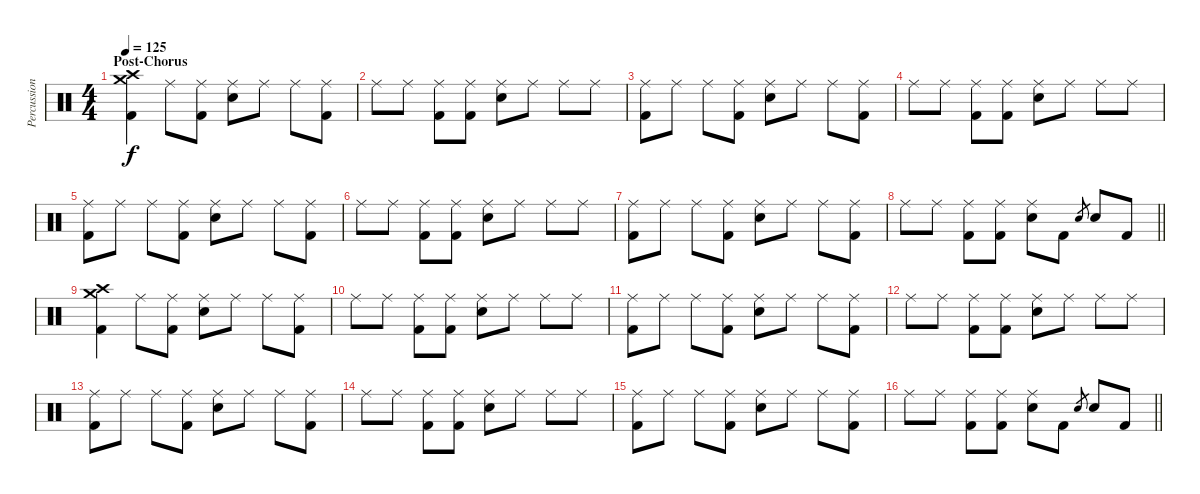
\track ("Percussion" "Percussion") {instrument percussion}
\staff {score}
\articulation defaults
\ts (4 4)
\section ("" "Post-Chorus")
\tempo 125
\clef neutral
\ks c
("Crash high (hit)" "Crash medium (hit)" "Kick (hit) 2").4{dy f} "Ride (middle)".8 ("Ride (middle)" "Kick (hit) 2").8 ("Ride (middle)" "Electric Snare (hit)").8 "Ride (middle)".8 "Ride (middle)".8 ("Ride (middle)" "Kick (hit) 2").8 |
"Ride (middle)".8 "Ride (middle)".8 ("Ride (middle)" "Kick (hit) 2").8 ("Ride (middle)" "Kick (hit) 2").8 ("Ride (middle)" "Electric Snare (hit)").8 "Ride (middle)".8 "Ride (middle)".8 "Ride (middle)".8 |
("Ride (middle)" "Kick (hit) 2").8 "Ride (middle)".8 "Ride (middle)".8 ("Ride (middle)" "Kick (hit) 2").8 ("Ride (middle)" "Electric Snare (hit)").8 "Ride (middle)".8 "Ride (middle)".8 ("Ride (middle)" "Kick (hit) 2").8 |
"Ride (middle)".8 "Ride (middle)".8 ("Ride (middle)" "Kick (hit) 2").8 ("Ride (middle)" "Kick (hit) 2").8 ("Ride (middle)" "Electric Snare (hit)").8 "Ride (middle)".8 "Ride (middle)".8 "Ride (middle)".8 |
("Ride (middle)" "Kick (hit) 2").8 "Ride (middle)".8 "Ride (middle)".8 ("Ride (middle)" "Kick (hit) 2").8 ("Ride (middle)" "Electric Snare (hit)").8 "Ride (middle)".8 "Ride (middle)".8 ("Ride (middle)" "Kick (hit) 2").8 |
"Ride (middle)".8 "Ride (middle)".8 ("Ride (middle)" "Kick (hit) 2").8 ("Ride (middle)" "Kick (hit) 2").8 ("Ride (middle)" "Electric Snare (hit)").8 "Ride (middle)".8 "Ride (middle)".8 "Ride (middle)".8 |
("Ride (middle)" "Kick (hit) 2").8 "Ride (middle)".8 "Ride (middle)".8 ("Ride (middle)" "Kick (hit) 2").8 ("Ride (middle)" "Electric Snare (hit)").8 "Ride (middle)".8 "Ride (middle)".8 ("Ride (middle)" "Kick (hit) 2").8 |
\barLineRight lightlight "Ride (middle)".8 "Ride (middle)".8
("Ride (middle)" "Kick (hit) 2").8 ("Ride (middle)" "Kick (hit) 2").8 ("Ride (middle)" "Electric Snare (hit)").8 "Kick (hit) 2".8 "Electric Snare (hit)".8{gr} "Electric Snare (hit)".8 "Kick (hit) 2".8 |
("Crash high (hit)" "Crash medium (hit)" "Kick (hit) 2").4 "Ride (middle)".8 ("Ride (middle)" "Kick (hit) 2").8 ("Ride (middle)" "Electric Snare (hit)").8 "Ride (middle)".8 "Ride (middle)".8 ("Ride (middle)" "Kick (hit) 2").8 |
"Ride (middle)".8 "Ride (middle)".8 ("Ride (middle)" "Kick (hit) 2").8 ("Ride (middle)" "Kick (hit) 2").8 ("Ride (middle)" "Electric Snare (hit)").8 "Ride (middle)".8 "Ride (middle)".8 "Ride (middle)".8 |
("Ride (middle)" "Kick (hit) 2").8 "Ride (middle)".8 "Ride (middle)".8 ("Ride (middle)" "Kick (hit) 2").8 ("Ride (middle)" "Electric Snare (hit)").8 "Ride (middle)".8 "Ride (middle)".8 ("Ride (middle)" "Kick (hit) 2").8 |
"Ride (middle)".8 "Ride (middle)".8 ("Ride (middle)" "Kick (hit) 2").8 ("Ride (middle)" "Kick (hit) 2").8 ("Ride (middle)" "Electric Snare (hit)").8 "Ride (middle)".8 "Ride (middle)".8 "Ride (middle)".8 |
("Ride (middle)" "Kick (hit) 2").8 "Ride (middle)".8 "Ride (middle)".8 ("Ride (middle)" "Kick (hit) 2").8 ("Ride (middle)" "Electric Snare (hit)").8 "Ride (middle)".8 "Ride (middle)".8 ("Ride (middle)" "Kick (hit) 2").8 |
"Ride (middle)".8 "Ride (middle)".8 ("Ride (middle)" "Kick (hit) 2").8 ("Ride (middle)" "Kick (hit) 2").8 ("Ride (middle)" "Electric Snare (hit)").8 "Ride (middle)".8 "Ride (middle)".8 "Ride (middle)".8 |
("Ride (middle)" "Kick (hit) 2").8 "Ride (middle)".8 "Ride (middle)".8 ("Ride (middle)" "Kick (hit) 2").8 ("Ride (middle)" "Electric Snare (hit)").8 "Ride (middle)".8 "Ride (middle)".8 ("Ride (middle)" "Kick (hit) 2").8 |
\barLineRight lightlight "Ride (middle)".8 "Ride (middle)".8
("Ride (middle)" "Kick (hit) 2").8 ("Ride (middle)" "Kick (hit) 2").8 ("Ride (middle)" "Electric Snare (hit)").8 "Kick (hit) 2".8 "Electric Snare (hit)".8{gr} "Electric Snare (hit)".8 "Kick (hit) 2".8
